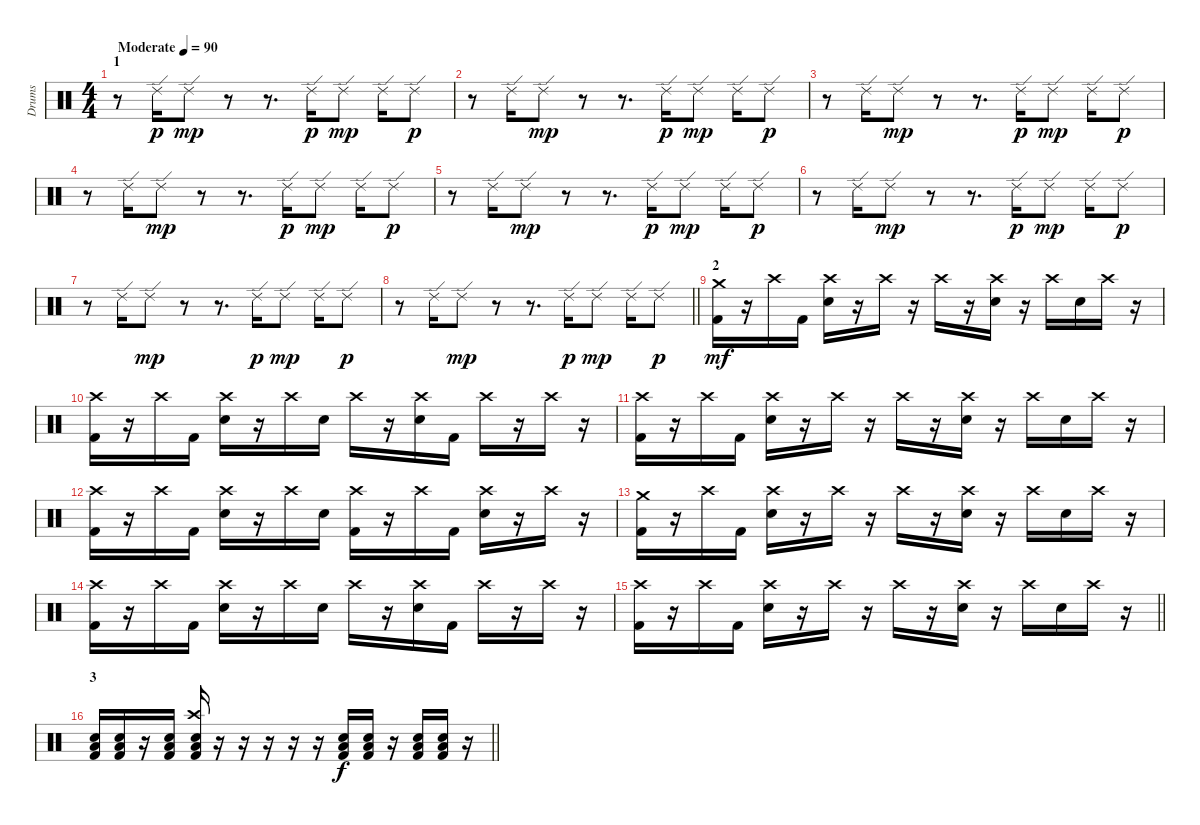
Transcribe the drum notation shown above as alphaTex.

\track ("Drums" "Drums") {instrument percussion}
\staff {score}
\articulation defaults
\ts (4 4)
\section ("" "1")
\tempo (90 "Moderate")
\clef neutral
\ks c
r.8{dy p} "Ride (edge) 2".16 "Ride (edge) 2".8{dy mp} r.8 r.8{d} "Ride (edge) 2".16{dy p} "Ride (edge) 2".8{dy mp} "Ride (edge) 2".16 "Ride (edge) 2".8{dy p} |
r.8 "Ride (edge) 2".16 "Ride (edge) 2".8{dy mp} r.8 r.8{d} "Ride (edge) 2".16{dy p} "Ride (edge) 2".8{dy mp} "Ride (edge) 2".16 "Ride (edge) 2".8{dy p} |
r.8 "Ride (edge) 2".16 "Ride (edge) 2".8{dy mp} r.8 r.8{d} "Ride (edge) 2".16{dy p} "Ride (edge) 2".8{dy mp} "Ride (edge) 2".16 "Ride (edge) 2".8{dy p} |
r.8 "Ride (edge) 2".16 "Ride (edge) 2".8{dy mp} r.8 r.8{d} "Ride (edge) 2".16{dy p} "Ride (edge) 2".8{dy mp} "Ride (edge) 2".16 "Ride (edge) 2".8{dy p} |
r.8 "Ride (edge) 2".16 "Ride (edge) 2".8{dy mp} r.8 r.8{d} "Ride (edge) 2".16{dy p} "Ride (edge) 2".8{dy mp} "Ride (edge) 2".16 "Ride (edge) 2".8{dy p} |
r.8 "Ride (edge) 2".16 "Ride (edge) 2".8{dy mp} r.8 r.8{d} "Ride (edge) 2".16{dy p} "Ride (edge) 2".8{dy mp} "Ride (edge) 2".16 "Ride (edge) 2".8{dy p} |
r.8 "Ride (edge) 2".16 "Ride (edge) 2".8{dy mp} r.8 r.8{d} "Ride (edge) 2".16{dy p} "Ride (edge) 2".8{dy mp} "Ride (edge) 2".16 "Ride (edge) 2".8{dy p} |
\barLineRight lightlight
r.8 "Ride (edge) 2".16 "Ride (edge) 2".8{dy mp} r.8 r.8{d} "Ride (edge) 2".16{dy p} "Ride (edge) 2".8{dy mp} "Ride (edge) 2".16 "Ride (edge) 2".8{dy p} |
\section ("" "2")
("Crash medium (hit)" "Kick (hit) 2").16{dy mf} r.16 "Crash high (hit)".16 "Kick (hit) 2".16 ("Crash high (hit)" "Electric Snare (hit)").16 r.16 "Crash high (hit)".16 r.16 "Crash high (hit)".16 r.16 ("Crash high (hit)" "Electric Snare (hit)").16 r.16 "Crash high (hit)".16 "Electric Snare (hit)".16 "Crash high (hit)".16 r.16 |
("Crash high (hit)" "Kick (hit) 2").16 r.16 "Crash high (hit)".16 "Kick (hit) 2".16 ("Crash high (hit)" "Electric Snare (hit)").16 r.16 "Crash high (hit)".16 "Electric Snare (hit)".16 "Crash high (hit)".16 r.16 ("Crash high (hit)" "Electric Snare (hit)").16 "Kick (hit) 2".16 "Crash high (hit)".16 r.16 "Crash high (hit)".16 r.16 |
("Crash high (hit)" "Kick (hit) 2").16 r.16 "Crash high (hit)".16 "Kick (hit) 2".16 ("Crash high (hit)" "Electric Snare (hit)").16 r.16 "Crash high (hit)".16 r.16 "Crash high (hit)".16 r.16 ("Crash high (hit)" "Electric Snare (hit)").16 r.16 "Crash high (hit)".16 "Electric Snare (hit)".16 "Crash high (hit)".16 r.16 |
("Crash high (hit)" "Kick (hit) 2").16 r.16 "Crash high (hit)".16 "Kick (hit) 2".16 ("Crash high (hit)" "Electric Snare (hit)").16 r.16 "Crash high (hit)".16 "Electric Snare (hit)".16 ("Crash high (hit)" "Kick (hit) 2").16 r.16 "Crash high (hit)".16 "Kick (hit) 2".16 ("Crash high (hit)" "Electric Snare (hit)").16 r.16 "Crash high (hit)".16 r.16 |
("Crash medium (hit)" "Kick (hit) 2").16 r.16 "Crash high (hit)".16 "Kick (hit) 2".16 ("Crash high (hit)" "Electric Snare (hit)").16 r.16 "Crash high (hit)".16 r.16 "Crash high (hit)".16 r.16 ("Crash high (hit)" "Electric Snare (hit)").16 r.16 "Crash high (hit)".16 "Electric Snare (hit)".16 "Crash high (hit)".16 r.16 |
("Crash high (hit)" "Kick (hit) 2").16 r.16 "Crash high (hit)".16 "Kick (hit) 2".16 ("Crash high (hit)" "Electric Snare (hit)").16 r.16 "Crash high (hit)".16 "Electric Snare (hit)".16 "Crash high (hit)".16 r.16 ("Crash high (hit)" "Electric Snare (hit)").16 "Kick (hit) 2".16 "Crash high (hit)".16 r.16 "Crash high (hit)".16 r.16 |
\barLineRight lightlight
("Crash high (hit)" "Kick (hit) 2").16 r.16 "Crash high (hit)".16 "Kick (hit) 2".16 ("Crash high (hit)" "Electric Snare (hit)").16 r.16 "Crash high (hit)".16 r.16 "Crash high (hit)".16 r.16 ("Crash high (hit)" "Electric Snare (hit)").16 r.16 "Crash high (hit)".16 "Electric Snare (hit)".16 "Crash high (hit)".16 r.16 |
\section ("" "3")
\barLineRight lightlight
("Electric Snare (hit)" "Low Tom (hit)" "Kick (hit) 2").16 ("Electric Snare (hit)" "Low Tom (hit)" "Kick (hit) 2").16 r.16 ("Electric Snare (hit)" "Low Tom (hit)" "Kick (hit) 2").16 ("Crash high (hit)" "Electric Snare (hit)" "Low Tom (hit)" "Kick (hit) 2").16 r.16 r.16 r.16 r.16 r.16 ("Electric Snare (hit)" "Low Tom (hit)" "Kick (hit) 2").16{dy f} ("Electric Snare (hit)" "Low Tom (hit)" "Kick (hit) 2").16 r.16 ("Electric Snare (hit)" "Low Tom (hit)" "Kick (hit) 2").16 ("Electric Snare (hit)" "Low Tom (hit)" "Kick (hit) 2").16 r.16
